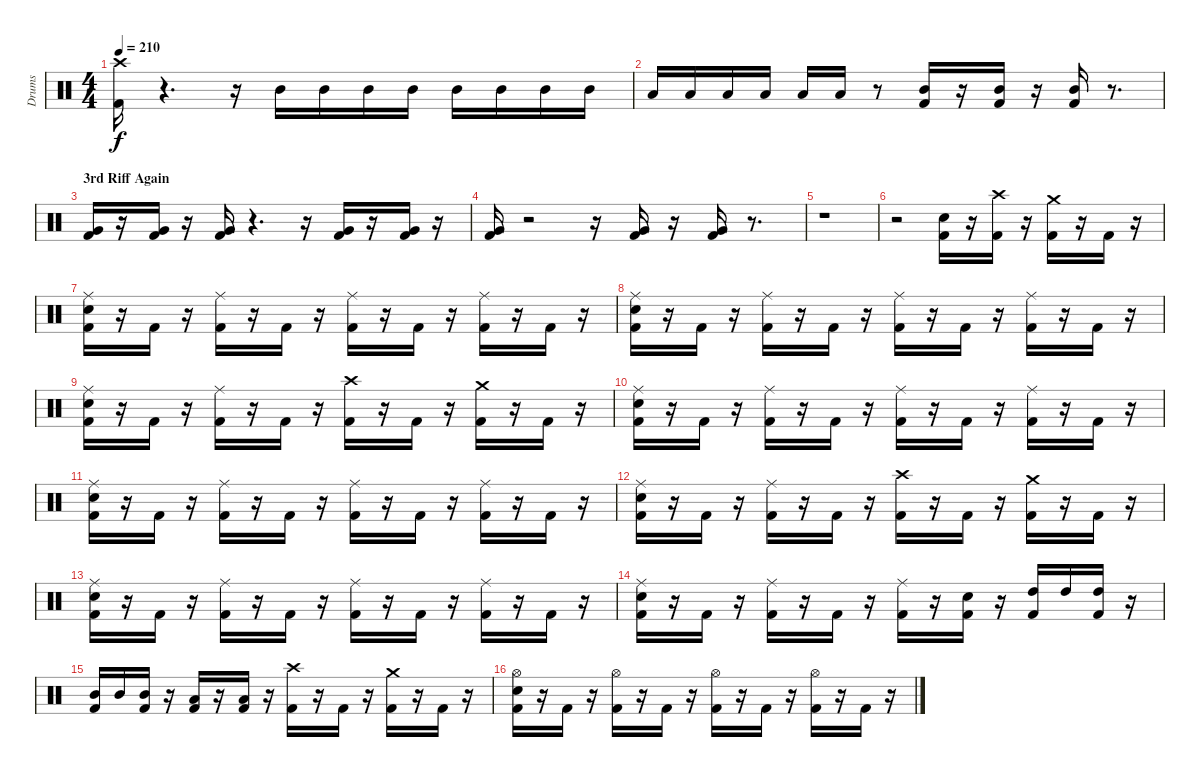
\track ("Drums" "Drums") {instrument percussion}
\staff {score}
\articulation defaults
\ts (4 4)
\tempo 210
\clef neutral
\ks c
("Crash high (hit)" "Kick (hit) 2").16{dy f} r.4{d} r.16 "Mid Tom (hit)".16 "Mid Tom (hit)".16 "Mid Tom (hit)".16 "Mid Tom (hit)".16 "Mid Tom (hit)".16 "Mid Tom (hit)".16 "Mid Tom (hit)".16 "Mid Tom (hit)".16 |
"Low Tom (hit)".16 "Low Tom (hit)".16 "Low Tom (hit)".16 "Low Tom (hit)".16 "Low Tom (hit)".16 "Low Tom (hit)".16 r.8 ("Kick (hit) 2" "Mid Tom (hit)").16 r.16 ("Mid Tom (hit)" "Kick (hit) 2").16 r.16 ("Kick (hit) 2" "Mid Tom (hit)").16 r.8{d} |
\section ("" "3rd Riff Again")
("Very Low Tom (hit)" "Kick (hit) 2").16 r.16 ("Kick (hit) 2" "Very Low Tom (hit)").16 r.16 ("Very Low Tom (hit)" "Kick (hit) 2").16 r.4{d} r.16 ("Very Low Tom (hit)" "Kick (hit) 2").16 r.16 ("Kick (hit) 2" "Very Low Tom (hit)").16 r.16 |
("Very Low Tom (hit)" "Kick (hit) 2").16 r.2 r.16 ("Kick (hit) 2" "Very Low Tom (hit)").16 r.16 ("Very Low Tom (hit)" "Kick (hit) 2").16 r.8{d} |
r.1 |
r.2 ("Snare (hit) 2" "Kick (hit) 2").16 r.16 ("Kick (hit) 2" "Crash high (hit)").16 r.16 ("Crash medium (hit)" "Kick (hit) 2").16 r.16 "Kick (hit) 2".16 r.16 |
("Ride (middle)" "Kick (hit) 2" "Snare (hit) 2").16 r.16 "Kick (hit) 2".16 r.16 ("Kick (hit) 2" "Ride (middle)").16 r.16 "Kick (hit) 2".16 r.16 ("Kick (hit) 2" "Ride (middle)").16 r.16 "Kick (hit) 2".16 r.16 ("Kick (hit) 2" "Ride (middle)").16 r.16 "Kick (hit) 2".16 r.16 |
("Kick (hit) 2" "Snare (hit) 2" "Ride (middle)").16 r.16 "Kick (hit) 2".16 r.16 ("Ride (middle)" "Kick (hit) 2").16 r.16 "Kick (hit) 2".16 r.16 ("Kick (hit) 2" "Ride (middle)").16 r.16 "Kick (hit) 2".16 r.16 ("Ride (middle)" "Kick (hit) 2").16 r.16 "Kick (hit) 2".16 r.16 |
("Kick (hit) 2" "Snare (hit) 2" "Ride (middle)").16 r.16 "Kick (hit) 2".16 r.16 ("Ride (middle)" "Kick (hit) 2").16 r.16 "Kick (hit) 2".16 r.16 ("Crash high (hit)" "Kick (hit) 2").16 r.16 "Kick (hit) 2".16 r.16 ("Kick (hit) 2" "Crash medium (hit)").16 r.16 "Kick (hit) 2".16 r.16 |
("Snare (hit) 2" "Kick (hit) 2" "Ride (middle)").16 r.16 "Kick (hit) 2".16 r.16 ("Ride (middle)" "Kick (hit) 2").16 r.16 "Kick (hit) 2".16 r.16 ("Ride (middle)" "Kick (hit) 2").16 r.16 "Kick (hit) 2".16 r.16 ("Kick (hit) 2" "Ride (middle)").16 r.16 "Kick (hit) 2".16 r.16 |
("Kick (hit) 2" "Ride (middle)" "Snare (hit) 2").16 r.16 "Kick (hit) 2".16 r.16 ("Ride (middle)" "Kick (hit) 2").16 r.16 "Kick (hit) 2".16 r.16 ("Kick (hit) 2" "Ride (middle)").16 r.16 "Kick (hit) 2".16 r.16 ("Kick (hit) 2" "Ride (middle)").16 r.16 "Kick (hit) 2".16 r.16 |
("Ride (middle)" "Snare (hit) 2" "Kick (hit) 2").16 r.16 "Kick (hit) 2".16 r.16 ("Kick (hit) 2" "Ride (middle)").16 r.16 "Kick (hit) 2".16 r.16 ("Crash high (hit)" "Kick (hit) 2").16 r.16 "Kick (hit) 2".16 r.16 ("Crash medium (hit)" "Kick (hit) 2").16 r.16 "Kick (hit) 2".16 r.16 |
("Snare (hit) 2" "Ride (middle)" "Kick (hit) 2").16 r.16 "Kick (hit) 2".16 r.16 ("Ride (middle)" "Kick (hit) 2").16 r.16 "Kick (hit) 2".16 r.16 ("Kick (hit) 2" "Ride (middle)").16 r.16 "Kick (hit) 2".16 r.16 ("Kick (hit) 2" "Ride (middle)").16 r.16 "Kick (hit) 2".16 r.16 |
("Kick (hit) 2" "Snare (hit) 2" "Ride (middle)").16 r.16 "Kick (hit) 2".16 r.16 ("Ride (middle)" "Kick (hit) 2").16 r.16 "Kick (hit) 2".16 r.16 ("Ride (middle)" "Kick (hit) 2").16 r.16 ("Kick (hit) 2" "Snare (hit) 2").16 r.16 ("High Tom (hit)" "Kick (hit) 2").16 "High Tom (hit)".16 ("Kick (hit) 2" "High Tom (hit)").16 r.16 |
("Kick (hit) 2" "Mid Tom (hit)").16 "Mid Tom (hit)".16 ("Mid Tom (hit)" "Kick (hit) 2").16 r.16 ("Kick (hit) 2" "Low Tom (hit)").16 r.16 ("Low Tom (hit)" "Kick (hit) 2").16 r.16 ("Crash high (hit)" "Kick (hit) 2").16 r.16 "Kick (hit) 2".16 r.16 ("Crash medium (hit)" "Kick (hit) 2").16 r.16 "Kick (hit) 2".16 r.16 |
("Hi-Hat (open)" "Snare (hit) 2" "Kick (hit) 2").16 r.16 "Kick (hit) 2".16 r.16 ("Kick (hit) 2" "Hi-Hat (open)").16 r.16 "Kick (hit) 2".16 r.16 ("Kick (hit) 2" "Hi-Hat (open)").16 r.16 "Kick (hit) 2".16 r.16 ("Kick (hit) 2" "Hi-Hat (open)").16 r.16 "Kick (hit) 2".16 r.16
